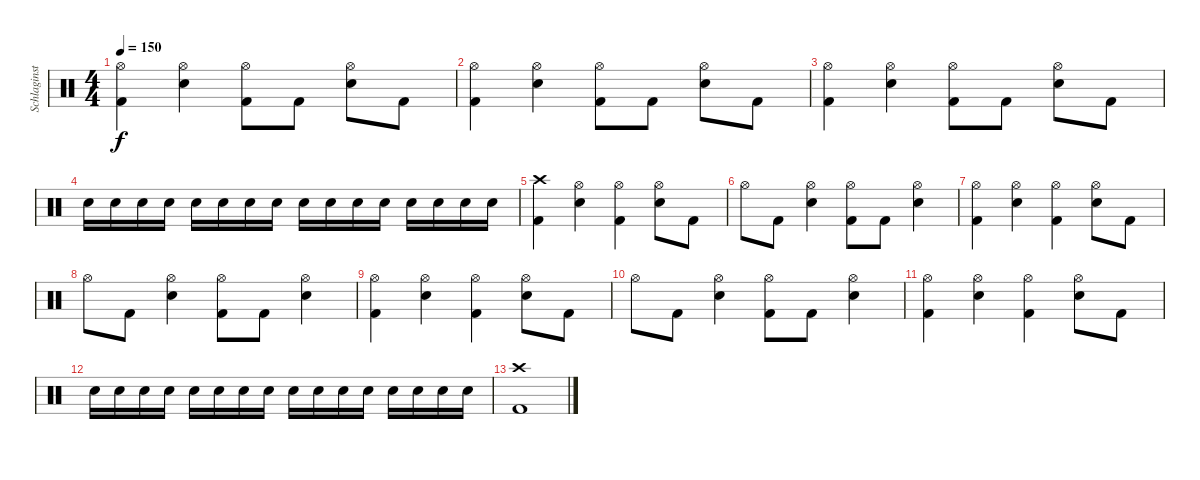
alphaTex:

\track ("Schlaginstrumente - Auswahl" "Schlaginst") {instrument percussion}
\staff {score}
\articulation defaults
\ts (4 4)
\tempo 150
\clef neutral
\ks c
("Hi-Hat (open)" "Kick (hit) 2").4{dy f} ("Snare (hit) 2" "Hi-Hat (open)").4 ("Kick (hit) 2" "Hi-Hat (open)").8 "Kick (hit) 2".8 ("Snare (hit) 2" "Hi-Hat (open)").8 "Kick (hit) 2".8 |
("Hi-Hat (open)" "Kick (hit) 2").4 ("Snare (hit) 2" "Hi-Hat (open)").4 ("Kick (hit) 2" "Hi-Hat (open)").8 "Kick (hit) 2".8 ("Snare (hit) 2" "Hi-Hat (open)").8 "Kick (hit) 2".8 |
("Hi-Hat (open)" "Kick (hit) 2").4 ("Snare (hit) 2" "Hi-Hat (open)").4 ("Kick (hit) 2" "Hi-Hat (open)").8 "Kick (hit) 2".8 ("Snare (hit) 2" "Hi-Hat (open)").8 "Kick (hit) 2".8 |
"Snare (hit) 2".16{volume 3} "Snare (hit) 2".16{volume 13} "Snare (hit) 2".16 "Snare (hit) 2".16 "Snare (hit) 2".16 "Snare (hit) 2".16 "Snare (hit) 2".16 "Snare (hit) 2".16 "Snare (hit) 2".16 "Snare (hit) 2".16 "Snare (hit) 2".16 "Snare (hit) 2".16 "Snare (hit) 2".16 "Snare (hit) 2".16 "Snare (hit) 2".16 "Snare (hit) 2".16 |
("Crash high (hit)" "Kick (hit) 2").4 ("Snare (hit) 2" "Hi-Hat (open)").4 ("Kick (hit) 2" "Hi-Hat (open)").4 ("Snare (hit) 2" "Hi-Hat (open)").8 "Kick (hit) 2".8 |
"Hi-Hat (open)".8 "Kick (hit) 2".8 ("Snare (hit) 2" "Hi-Hat (open)").4 ("Kick (hit) 2" "Hi-Hat (open)").8 "Kick (hit) 2".8 ("Snare (hit) 2" "Hi-Hat (open)").4 |
("Hi-Hat (open)" "Kick (hit) 2").4 ("Snare (hit) 2" "Hi-Hat (open)").4 ("Kick (hit) 2" "Hi-Hat (open)").4 ("Snare (hit) 2" "Hi-Hat (open)").8 "Kick (hit) 2".8 |
"Hi-Hat (open)".8 "Kick (hit) 2".8 ("Snare (hit) 2" "Hi-Hat (open)").4 ("Kick (hit) 2" "Hi-Hat (open)").8 "Kick (hit) 2".8 ("Snare (hit) 2" "Hi-Hat (open)").4 |
("Hi-Hat (open)" "Kick (hit) 2").4 ("Snare (hit) 2" "Hi-Hat (open)").4 ("Kick (hit) 2" "Hi-Hat (open)").4 ("Snare (hit) 2" "Hi-Hat (open)").8 "Kick (hit) 2".8 |
"Hi-Hat (open)".8 "Kick (hit) 2".8 ("Snare (hit) 2" "Hi-Hat (open)").4 ("Kick (hit) 2" "Hi-Hat (open)").8 "Kick (hit) 2".8 ("Snare (hit) 2" "Hi-Hat (open)").4 |
("Hi-Hat (open)" "Kick (hit) 2").4 ("Snare (hit) 2" "Hi-Hat (open)").4 ("Kick (hit) 2" "Hi-Hat (open)").4 ("Snare (hit) 2" "Hi-Hat (open)").8 "Kick (hit) 2".8 |
"Snare (hit) 2".16{volume 3} "Snare (hit) 2".16{volume 13} "Snare (hit) 2".16 "Snare (hit) 2".16 "Snare (hit) 2".16 "Snare (hit) 2".16 "Snare (hit) 2".16 "Snare (hit) 2".16 "Snare (hit) 2".16 "Snare (hit) 2".16 "Snare (hit) 2".16 "Snare (hit) 2".16 "Snare (hit) 2".16 "Snare (hit) 2".16 "Snare (hit) 2".16 "Snare (hit) 2".16 |
("Kick (hit) 2" "Crash high (hit)").1
